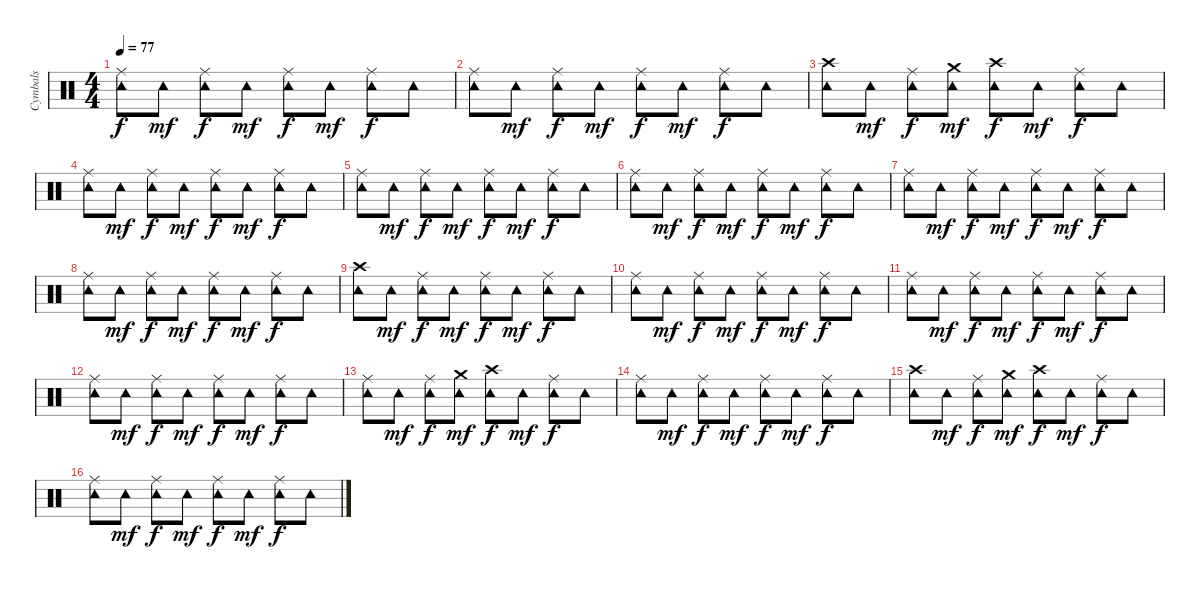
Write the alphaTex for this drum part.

\track ("Cymbals" "Cymbals") {instrument percussion}
\staff {score}
\articulation defaults
\ts (4 4)
\tempo 77
\clef neutral
\ks c
("Tambourine (hit)" "Ride (middle)").8{dy f} "Tambourine (hit)".8{dy mf} ("Tambourine (hit)" "Ride (middle)").8{dy f} "Tambourine (hit)".8{dy mf} ("Tambourine (hit)" "Ride (middle)").8{dy f} "Tambourine (hit)".8{dy mf} ("Tambourine (hit)" "Ride (middle)").8{dy f} "Tambourine (hit)".8 |
("Tambourine (hit)" "Ride (middle)").8 "Tambourine (hit)".8{dy mf} ("Tambourine (hit)" "Ride (middle)").8{dy f} "Tambourine (hit)".8{dy mf} ("Tambourine (hit)" "Ride (middle)").8{dy f} "Tambourine (hit)".8{dy mf} ("Tambourine (hit)" "Ride (middle)").8{dy f} "Tambourine (hit)".8 |
("Tambourine (hit)" "Crash high (hit)").8 "Tambourine (hit)".8{dy mf} ("Tambourine (hit)" "Ride (middle)").8{dy f} ("Tambourine (hit)" "Crash medium (hit)").8{dy mf} ("Tambourine (hit)" "Crash high (hit)").8{dy f} "Tambourine (hit)".8{dy mf} ("Tambourine (hit)" "Ride (middle)").8{dy f} "Tambourine (hit)".8 |
("Tambourine (hit)" "Ride (middle)").8 "Tambourine (hit)".8{dy mf} ("Tambourine (hit)" "Ride (middle)").8{dy f} "Tambourine (hit)".8{dy mf} ("Tambourine (hit)" "Ride (middle)").8{dy f} "Tambourine (hit)".8{dy mf} ("Tambourine (hit)" "Ride (middle)").8{dy f} "Tambourine (hit)".8 |
("Tambourine (hit)" "Ride (middle)").8 "Tambourine (hit)".8{dy mf} ("Tambourine (hit)" "Ride (middle)").8{dy f} "Tambourine (hit)".8{dy mf} ("Tambourine (hit)" "Ride (middle)").8{dy f} "Tambourine (hit)".8{dy mf} ("Tambourine (hit)" "Ride (middle)").8{dy f} "Tambourine (hit)".8 |
("Tambourine (hit)" "Ride (middle)").8 "Tambourine (hit)".8{dy mf} ("Tambourine (hit)" "Ride (middle)").8{dy f} "Tambourine (hit)".8{dy mf} ("Tambourine (hit)" "Ride (middle)").8{dy f} "Tambourine (hit)".8{dy mf} ("Tambourine (hit)" "Ride (middle)").8{dy f} "Tambourine (hit)".8 |
("Tambourine (hit)" "Ride (middle)").8 "Tambourine (hit)".8{dy mf} ("Tambourine (hit)" "Ride (middle)").8{dy f} "Tambourine (hit)".8{dy mf} ("Tambourine (hit)" "Ride (middle)").8{dy f} "Tambourine (hit)".8{dy mf} ("Tambourine (hit)" "Ride (middle)").8{dy f} "Tambourine (hit)".8 |
("Tambourine (hit)" "Ride (middle)").8 "Tambourine (hit)".8{dy mf} ("Tambourine (hit)" "Ride (middle)").8{dy f} "Tambourine (hit)".8{dy mf} ("Tambourine (hit)" "Ride (middle)").8{dy f} "Tambourine (hit)".8{dy mf} ("Tambourine (hit)" "Ride (middle)").8{dy f} "Tambourine (hit)".8 |
("Tambourine (hit)" "Crash high (hit)").8 "Tambourine (hit)".8{dy mf} ("Tambourine (hit)" "Ride (middle)").8{dy f} "Tambourine (hit)".8{dy mf} ("Tambourine (hit)" "Ride (middle)").8{dy f} "Tambourine (hit)".8{dy mf} ("Tambourine (hit)" "Ride (middle)").8{dy f} "Tambourine (hit)".8 |
("Tambourine (hit)" "Ride (middle)").8 "Tambourine (hit)".8{dy mf} ("Tambourine (hit)" "Ride (middle)").8{dy f} "Tambourine (hit)".8{dy mf} ("Tambourine (hit)" "Ride (middle)").8{dy f} "Tambourine (hit)".8{dy mf} ("Tambourine (hit)" "Ride (middle)").8{dy f} "Tambourine (hit)".8 |
("Tambourine (hit)" "Ride (middle)").8 "Tambourine (hit)".8{dy mf} ("Tambourine (hit)" "Ride (middle)").8{dy f} "Tambourine (hit)".8{dy mf} ("Tambourine (hit)" "Ride (middle)").8{dy f} "Tambourine (hit)".8{dy mf} ("Tambourine (hit)" "Ride (middle)").8{dy f} "Tambourine (hit)".8 |
("Tambourine (hit)" "Ride (middle)").8 "Tambourine (hit)".8{dy mf} ("Tambourine (hit)" "Ride (middle)").8{dy f} "Tambourine (hit)".8{dy mf} ("Tambourine (hit)" "Ride (middle)").8{dy f} "Tambourine (hit)".8{dy mf} ("Tambourine (hit)" "Ride (middle)").8{dy f} "Tambourine (hit)".8 |
("Tambourine (hit)" "Ride (middle)").8 "Tambourine (hit)".8{dy mf} ("Tambourine (hit)" "Ride (middle)").8{dy f} ("Tambourine (hit)" "Crash medium (hit)").8{dy mf} ("Tambourine (hit)" "Crash high (hit)").8{dy f} "Tambourine (hit)".8{dy mf} ("Tambourine (hit)" "Ride (middle)").8{dy f} "Tambourine (hit)".8 |
("Tambourine (hit)" "Ride (middle)").8 "Tambourine (hit)".8{dy mf} ("Tambourine (hit)" "Ride (middle)").8{dy f} "Tambourine (hit)".8{dy mf} ("Tambourine (hit)" "Ride (middle)").8{dy f} "Tambourine (hit)".8{dy mf} ("Tambourine (hit)" "Ride (middle)").8{dy f} "Tambourine (hit)".8 |
("Tambourine (hit)" "Crash high (hit)").8 "Tambourine (hit)".8{dy mf} ("Tambourine (hit)" "Ride (middle)").8{dy f} ("Tambourine (hit)" "Crash medium (hit)").8{dy mf} ("Tambourine (hit)" "Crash high (hit)").8{dy f} "Tambourine (hit)".8{dy mf} ("Tambourine (hit)" "Ride (middle)").8{dy f} "Tambourine (hit)".8 |
("Tambourine (hit)" "Ride (middle)").8 "Tambourine (hit)".8{dy mf} ("Tambourine (hit)" "Ride (middle)").8{dy f} "Tambourine (hit)".8{dy mf} ("Tambourine (hit)" "Ride (middle)").8{dy f} "Tambourine (hit)".8{dy mf} ("Tambourine (hit)" "Ride (middle)").8{dy f} "Tambourine (hit)".8
